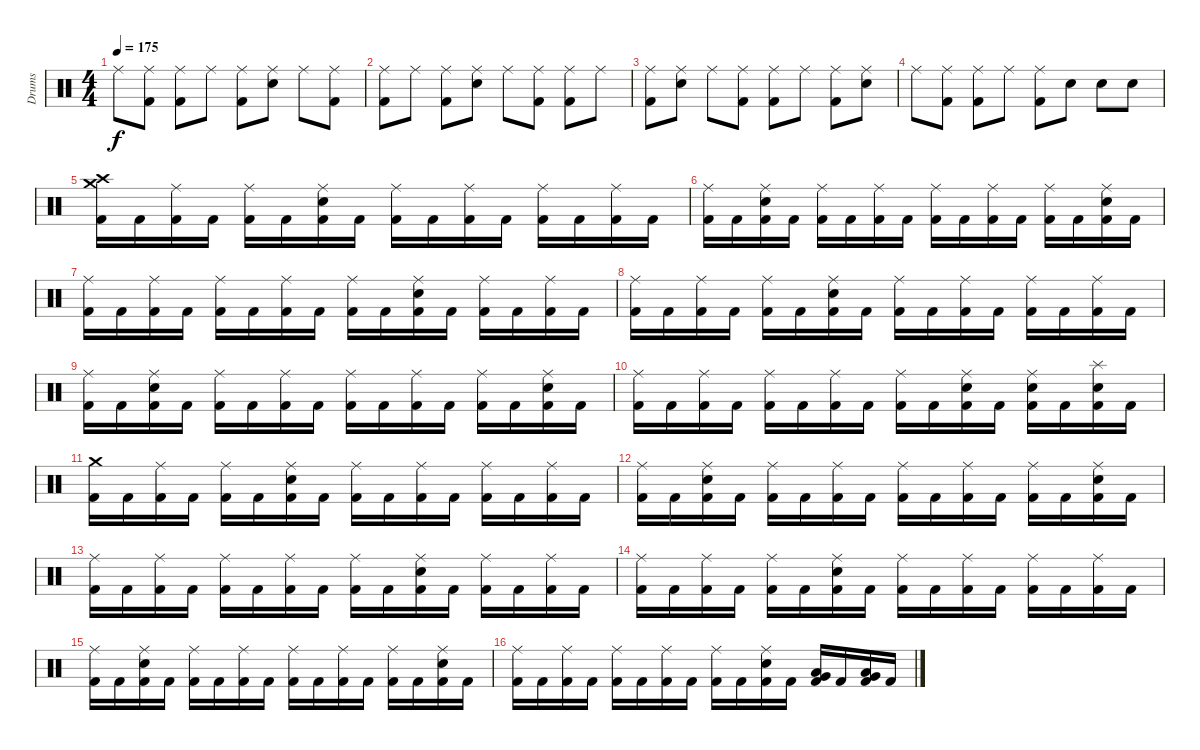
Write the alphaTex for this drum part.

\track ("Drums" "Drums") {instrument percussion}
\staff {score}
\articulation defaults
\ts (4 4)
\tempo 175
\clef neutral
\ks c "Ride (middle)".8{dy f}
("Ride (middle)" "Kick (hit) 2").8 ("Ride (middle)" "Kick (hit) 2").8 "Ride (middle)".8 ("Ride (middle)" "Kick (hit) 2").8 ("Ride (middle)" "Electric Snare (hit)").8 "Ride (middle)".8 ("Ride (middle)" "Kick (hit) 2").8 |
("Ride (middle)" "Kick (hit) 2").8 "Ride (middle)".8 ("Ride (middle)" "Kick (hit) 2").8 ("Ride (middle)" "Electric Snare (hit)").8 "Ride (middle)".8 ("Ride (middle)" "Kick (hit) 2").8 ("Ride (middle)" "Kick (hit) 2").8 "Ride (middle)".8 |
("Ride (middle)" "Kick (hit) 2").8 ("Ride (middle)" "Electric Snare (hit)").8 "Ride (middle)".8 ("Ride (middle)" "Kick (hit) 2").8 ("Ride (middle)" "Kick (hit) 2").8 "Ride (middle)".8 ("Ride (middle)" "Kick (hit) 2").8 ("Ride (middle)" "Electric Snare (hit)").8 |
"Ride (middle)".8 ("Ride (middle)" "Kick (hit) 2").8 ("Ride (middle)" "Kick (hit) 2").8 "Ride (middle)".8 ("Ride (middle)" "Kick (hit) 2").8 "Electric Snare (hit)".8 "Electric Snare (hit)".8 "Electric Snare (hit)".8 |
("Crash medium (hit)" "Crash high (hit)" "Kick (hit) 2").16 "Kick (hit) 2".16 ("Ride (middle)" "Kick (hit) 2").16 "Kick (hit) 2".16 ("Ride (middle)" "Kick (hit) 2").16 "Kick (hit) 2".16 ("Ride (middle)" "Electric Snare (hit)" "Kick (hit) 2").16 "Kick (hit) 2".16 ("Ride (middle)" "Kick (hit) 2").16 "Kick (hit) 2".16 ("Ride (middle)" "Kick (hit) 2").16 "Kick (hit) 2".16 ("Ride (middle)" "Kick (hit) 2").16 "Kick (hit) 2".16 ("Ride (middle)" "Kick (hit) 2").16 "Kick (hit) 2".16 |
("Ride (middle)" "Kick (hit) 2").16 "Kick (hit) 2".16 ("Ride (middle)" "Electric Snare (hit)" "Kick (hit) 2").16 "Kick (hit) 2".16 ("Ride (middle)" "Kick (hit) 2").16 "Kick (hit) 2".16 ("Ride (middle)" "Kick (hit) 2").16 "Kick (hit) 2".16 ("Ride (middle)" "Kick (hit) 2").16 "Kick (hit) 2".16 ("Ride (middle)" "Kick (hit) 2").16 "Kick (hit) 2".16 ("Ride (middle)" "Kick (hit) 2").16 "Kick (hit) 2".16 ("Ride (middle)" "Electric Snare (hit)" "Kick (hit) 2").16 "Kick (hit) 2".16 |
("Ride (middle)" "Kick (hit) 2").16 "Kick (hit) 2".16 ("Ride (middle)" "Kick (hit) 2").16 "Kick (hit) 2".16 ("Ride (middle)" "Kick (hit) 2").16 "Kick (hit) 2".16 ("Ride (middle)" "Kick (hit) 2").16 "Kick (hit) 2".16 ("Ride (middle)" "Kick (hit) 2").16 "Kick (hit) 2".16 ("Ride (middle)" "Electric Snare (hit)" "Kick (hit) 2").16 "Kick (hit) 2".16 ("Ride (middle)" "Kick (hit) 2").16 "Kick (hit) 2".16 ("Ride (middle)" "Kick (hit) 2").16 "Kick (hit) 2".16 |
("Ride (middle)" "Kick (hit) 2").16 "Kick (hit) 2".16 ("Ride (middle)" "Kick (hit) 2").16 "Kick (hit) 2".16 ("Ride (middle)" "Kick (hit) 2").16 "Kick (hit) 2".16 ("Ride (middle)" "Electric Snare (hit)" "Kick (hit) 2").16 "Kick (hit) 2".16 ("Ride (middle)" "Kick (hit) 2").16 "Kick (hit) 2".16 ("Ride (middle)" "Kick (hit) 2").16 "Kick (hit) 2".16 ("Ride (middle)" "Kick (hit) 2").16 "Kick (hit) 2".16 ("Ride (middle)" "Kick (hit) 2").16 "Kick (hit) 2".16 |
("Ride (middle)" "Kick (hit) 2").16 "Kick (hit) 2".16 ("Ride (middle)" "Electric Snare (hit)" "Kick (hit) 2").16 "Kick (hit) 2".16 ("Ride (middle)" "Kick (hit) 2").16 "Kick (hit) 2".16 ("Ride (middle)" "Kick (hit) 2").16 "Kick (hit) 2".16 ("Ride (middle)" "Kick (hit) 2").16 "Kick (hit) 2".16 ("Ride (middle)" "Kick (hit) 2").16 "Kick (hit) 2".16 ("Ride (middle)" "Kick (hit) 2").16 "Kick (hit) 2".16 ("Ride (middle)" "Electric Snare (hit)" "Kick (hit) 2").16 "Kick (hit) 2".16 |
("Ride (middle)" "Kick (hit) 2").16 "Kick (hit) 2".16 ("Ride (middle)" "Kick (hit) 2").16 "Kick (hit) 2".16 ("Ride (middle)" "Kick (hit) 2").16 "Kick (hit) 2".16 ("Ride (middle)" "Kick (hit) 2").16 "Kick (hit) 2".16 ("Ride (middle)" "Kick (hit) 2").16 "Kick (hit) 2".16 ("Ride (middle)" "Electric Snare (hit)" "Kick (hit) 2").16 "Kick (hit) 2".16 ("Ride (middle)" "Electric Snare (hit)" "Kick (hit) 2").16 "Kick (hit) 2".16 ("Splash (hit)" "Electric Snare (hit)" "Kick (hit) 2").16 "Kick (hit) 2".16 |
("Crash medium (hit)" "Kick (hit) 2").16 "Kick (hit) 2".16 ("Ride (middle)" "Kick (hit) 2").16 "Kick (hit) 2".16 ("Ride (middle)" "Kick (hit) 2").16 "Kick (hit) 2".16 ("Ride (middle)" "Electric Snare (hit)" "Kick (hit) 2").16 "Kick (hit) 2".16 ("Ride (middle)" "Kick (hit) 2").16 "Kick (hit) 2".16 ("Ride (middle)" "Kick (hit) 2").16 "Kick (hit) 2".16 ("Ride (middle)" "Kick (hit) 2").16 "Kick (hit) 2".16 ("Ride (middle)" "Kick (hit) 2").16 "Kick (hit) 2".16 |
("Ride (middle)" "Kick (hit) 2").16 "Kick (hit) 2".16 ("Ride (middle)" "Electric Snare (hit)" "Kick (hit) 2").16 "Kick (hit) 2".16 ("Ride (middle)" "Kick (hit) 2").16 "Kick (hit) 2".16 ("Ride (middle)" "Kick (hit) 2").16 "Kick (hit) 2".16 ("Ride (middle)" "Kick (hit) 2").16 "Kick (hit) 2".16 ("Ride (middle)" "Kick (hit) 2").16 "Kick (hit) 2".16 ("Ride (middle)" "Kick (hit) 2").16 "Kick (hit) 2".16 ("Ride (middle)" "Electric Snare (hit)" "Kick (hit) 2").16 "Kick (hit) 2".16 |
("Ride (middle)" "Kick (hit) 2").16 "Kick (hit) 2".16 ("Ride (middle)" "Kick (hit) 2").16 "Kick (hit) 2".16 ("Ride (middle)" "Kick (hit) 2").16 "Kick (hit) 2".16 ("Ride (middle)" "Kick (hit) 2").16 "Kick (hit) 2".16 ("Ride (middle)" "Kick (hit) 2").16 "Kick (hit) 2".16 ("Ride (middle)" "Electric Snare (hit)" "Kick (hit) 2").16 "Kick (hit) 2".16 ("Ride (middle)" "Kick (hit) 2").16 "Kick (hit) 2".16 ("Ride (middle)" "Kick (hit) 2").16 "Kick (hit) 2".16 |
("Ride (middle)" "Kick (hit) 2").16 "Kick (hit) 2".16 ("Ride (middle)" "Kick (hit) 2").16 "Kick (hit) 2".16 ("Ride (middle)" "Kick (hit) 2").16 "Kick (hit) 2".16 ("Ride (middle)" "Electric Snare (hit)" "Kick (hit) 2").16 "Kick (hit) 2".16 ("Ride (middle)" "Kick (hit) 2").16 "Kick (hit) 2".16 ("Ride (middle)" "Kick (hit) 2").16 "Kick (hit) 2".16 ("Ride (middle)" "Kick (hit) 2").16 "Kick (hit) 2".16 ("Ride (middle)" "Kick (hit) 2").16 "Kick (hit) 2".16 |
("Ride (middle)" "Kick (hit) 2").16 "Kick (hit) 2".16 ("Ride (middle)" "Electric Snare (hit)" "Kick (hit) 2").16 "Kick (hit) 2".16 ("Ride (middle)" "Kick (hit) 2").16 "Kick (hit) 2".16 ("Ride (middle)" "Kick (hit) 2").16 "Kick (hit) 2".16 ("Ride (middle)" "Kick (hit) 2").16 "Kick (hit) 2".16 ("Ride (middle)" "Kick (hit) 2").16 "Kick (hit) 2".16 ("Ride (middle)" "Kick (hit) 2").16 "Kick (hit) 2".16 ("Ride (middle)" "Electric Snare (hit)" "Kick (hit) 2").16 "Kick (hit) 2".16 |
("Ride (middle)" "Kick (hit) 2").16 "Kick (hit) 2".16 ("Ride (middle)" "Kick (hit) 2").16 "Kick (hit) 2".16 ("Ride (middle)" "Kick (hit) 2").16 "Kick (hit) 2".16 ("Ride (middle)" "Kick (hit) 2").16 "Kick (hit) 2".16 ("Ride (middle)" "Kick (hit) 2").16 "Kick (hit) 2".16 ("Ride (middle)" "Electric Snare (hit)" "Kick (hit) 2").16 "Kick (hit) 2".16 ("Very Low Tom (hit)" "Low Tom (hit)" "Kick (hit) 2").16 "Kick (hit) 2".16 ("Very Low Tom (hit)" "Low Tom (hit)" "Kick (hit) 2").16 "Kick (hit) 2".16
